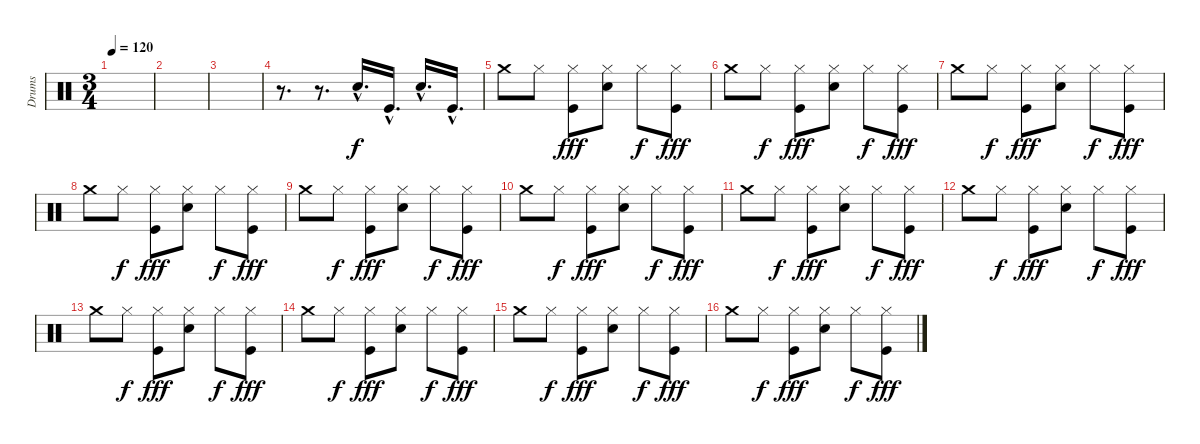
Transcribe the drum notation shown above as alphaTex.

\track ("Drums" "Drums") {instrument percussion}
\staff {score}
\articulation defaults
\ts (3 4)
\tempo 120
\clef neutral
\ks c
|
|
|
r.8{d} r.8{d} "Snare (hit) 2"{hac}.16{d} "Kick (hit)"{hac}.16{d} "Snare (hit) 2"{hac}.16{d} "Kick (hit)"{hac}.16{d} |
"Crash medium (hit)".8 "Hi-Hat (closed)".8{dy f} ("Kick (hit)" "Hi-Hat (closed)").8{dy fff} ("Snare (hit) 2" "Hi-Hat (closed)").8 "Hi-Hat (closed)".8{dy f} ("Kick (hit)" "Hi-Hat (closed)").8{dy fff} |
"Crash medium (hit)".8 "Hi-Hat (closed)".8{dy f} ("Kick (hit)" "Hi-Hat (closed)").8{dy fff} ("Snare (hit) 2" "Hi-Hat (closed)").8 "Hi-Hat (closed)".8{dy f} ("Kick (hit)" "Hi-Hat (closed)").8{dy fff} |
"Crash medium (hit)".8 "Hi-Hat (closed)".8{dy f} ("Kick (hit)" "Hi-Hat (closed)").8{dy fff} ("Snare (hit) 2" "Hi-Hat (closed)").8 "Hi-Hat (closed)".8{dy f} ("Kick (hit)" "Hi-Hat (closed)").8{dy fff} |
"Crash medium (hit)".8 "Hi-Hat (closed)".8{dy f} ("Kick (hit)" "Hi-Hat (closed)").8{dy fff} ("Snare (hit) 2" "Hi-Hat (closed)").8 "Hi-Hat (closed)".8{dy f} ("Kick (hit)" "Hi-Hat (closed)").8{dy fff} |
"Crash medium (hit)".8 "Hi-Hat (closed)".8{dy f} ("Kick (hit)" "Hi-Hat (closed)").8{dy fff} ("Snare (hit) 2" "Hi-Hat (closed)").8 "Hi-Hat (closed)".8{dy f} ("Kick (hit)" "Hi-Hat (closed)").8{dy fff} |
"Crash medium (hit)".8 "Hi-Hat (closed)".8{dy f} ("Kick (hit)" "Hi-Hat (closed)").8{dy fff} ("Snare (hit) 2" "Hi-Hat (closed)").8 "Hi-Hat (closed)".8{dy f} ("Kick (hit)" "Hi-Hat (closed)").8{dy fff} |
"Crash medium (hit)".8 "Hi-Hat (closed)".8{dy f} ("Kick (hit)" "Hi-Hat (closed)").8{dy fff} ("Snare (hit) 2" "Hi-Hat (closed)").8 "Hi-Hat (closed)".8{dy f} ("Kick (hit)" "Hi-Hat (closed)").8{dy fff} |
"Crash medium (hit)".8 "Hi-Hat (closed)".8{dy f} ("Kick (hit)" "Hi-Hat (closed)").8{dy fff} ("Snare (hit) 2" "Hi-Hat (closed)").8 "Hi-Hat (closed)".8{dy f} ("Kick (hit)" "Hi-Hat (closed)").8{dy fff} |
"Crash medium (hit)".8 "Hi-Hat (closed)".8{dy f} ("Kick (hit)" "Hi-Hat (closed)").8{dy fff} ("Snare (hit) 2" "Hi-Hat (closed)").8 "Hi-Hat (closed)".8{dy f} ("Kick (hit)" "Hi-Hat (closed)").8{dy fff} |
"Crash medium (hit)".8 "Hi-Hat (closed)".8{dy f} ("Kick (hit)" "Hi-Hat (closed)").8{dy fff} ("Snare (hit) 2" "Hi-Hat (closed)").8 "Hi-Hat (closed)".8{dy f} ("Kick (hit)" "Hi-Hat (closed)").8{dy fff} |
"Crash medium (hit)".8 "Hi-Hat (closed)".8{dy f} ("Kick (hit)" "Hi-Hat (closed)").8{dy fff} ("Snare (hit) 2" "Hi-Hat (closed)").8 "Hi-Hat (closed)".8{dy f} ("Kick (hit)" "Hi-Hat (closed)").8{dy fff} |
"Crash medium (hit)".8 "Hi-Hat (closed)".8{dy f} ("Kick (hit)" "Hi-Hat (closed)").8{dy fff} ("Snare (hit) 2" "Hi-Hat (closed)").8 "Hi-Hat (closed)".8{dy f} ("Kick (hit)" "Hi-Hat (closed)").8{dy fff}
